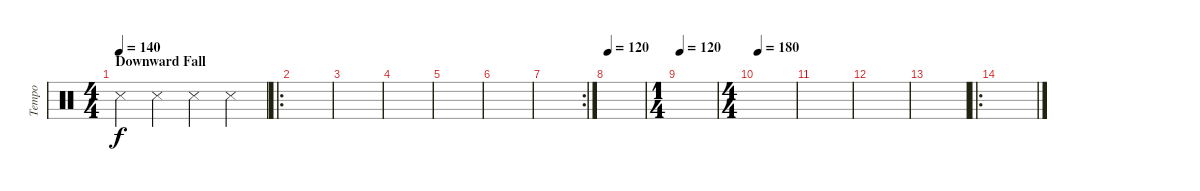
\track ("Tempo" "Tempo") {instrument percussion}
\staff {score}
\articulation defaults
\ts (4 4)
\section ("" "Downward Fall")
\tempo 140
\clef neutral
\ks c "Snare (side stick) 3".4{dy f} "Snare (side stick) 3".4 "Snare (side stick) 3".4 "Snare (side stick) 3".4
|
\ro
|
|
|
|
|
\rc 2
|
\tempo 120
|
\ts (1 4)
\tempo 120
|
\ts (4 4)
\tempo 180
|
|
|
|
\ro
